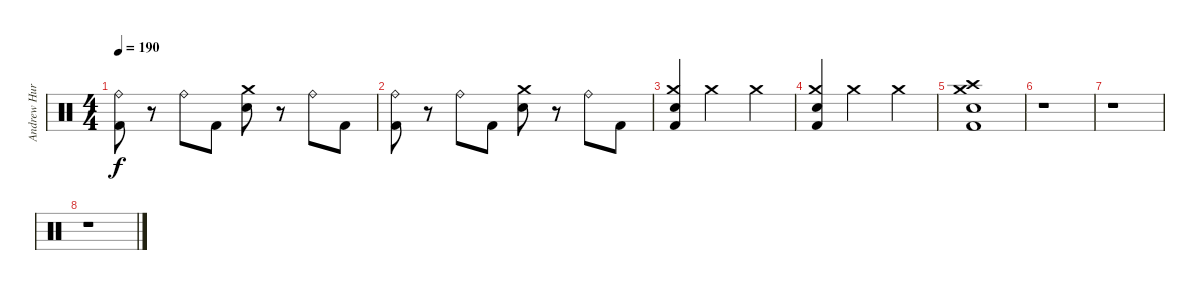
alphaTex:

\track ("Andrew Hurley (Drums)" "Andrew Hur") {instrument percussion}
\staff {score}
\articulation defaults
\ts (4 4)
\tempo 190
\clef neutral
\ks c
("Ride (bell)" "Kick (hit) 2").8{dy f} r.8 "Ride (bell)".8 "Kick (hit) 2".8 ("Crash medium (hit)" "Electric Snare (hit)").8 r.8 "Ride (bell)".8 "Kick (hit) 2".8 |
("Ride (bell)" "Kick (hit) 2").8 r.8 "Ride (bell)".8 "Kick (hit) 2".8 ("Crash medium (hit)" "Electric Snare (hit)").8 r.8 "Ride (bell)".8 "Kick (hit) 2".8 |
("Crash medium (hit)" "Electric Snare (hit)" "Kick (hit) 2").4 "Crash medium (hit)".2 "Crash medium (hit)".4 |
("Crash medium (hit)" "Electric Snare (hit)" "Kick (hit) 2").4 "Crash medium (hit)".2 "Crash medium (hit)".4 |
("Crash medium (hit)" "Crash high (hit)" "Electric Snare (hit)" "Kick (hit) 2").1 |
r.1 |
r.1 |
r.1
